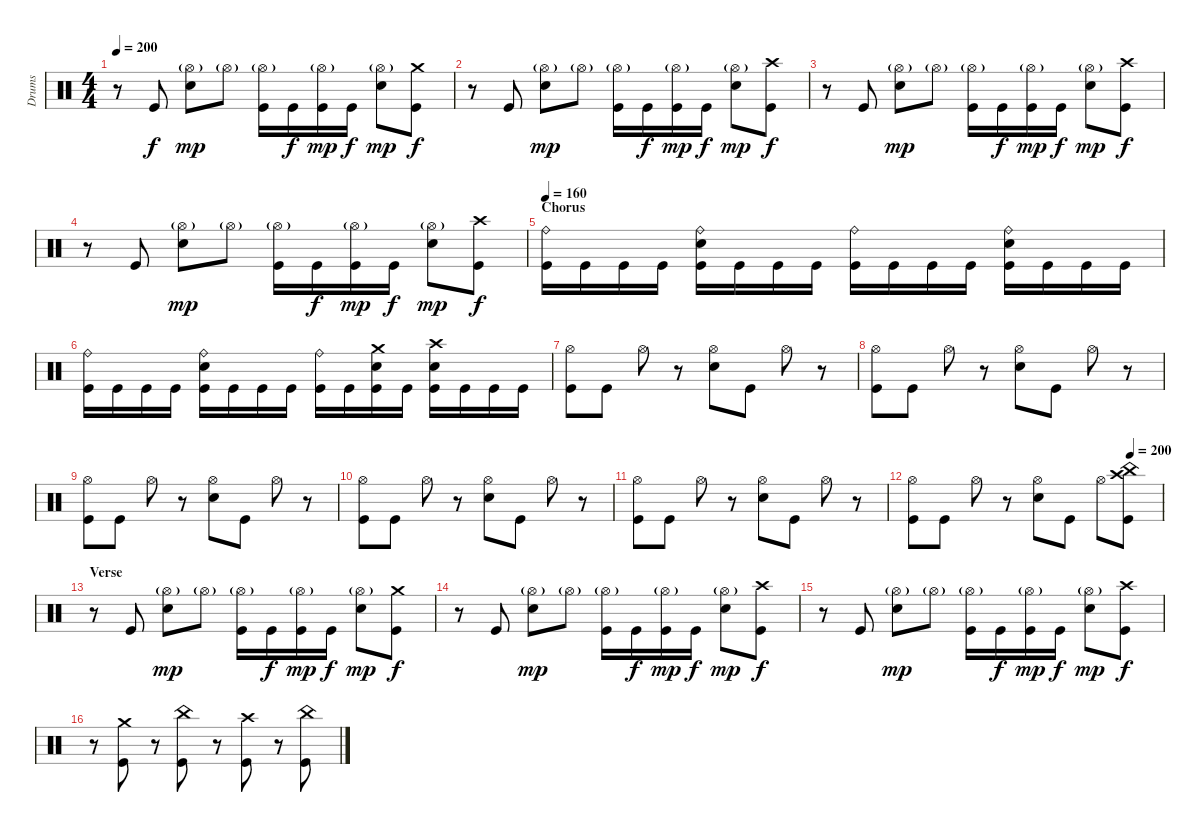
\track ("Drums" "Drums") {instrument percussion}
\staff {score}
\articulation defaults
\ts (4 4)
\tempo 200
\clef neutral
\ks c
r.8{dy f} "Kick (hit)".8 ("Hi-Hat (open)"{g} "Snare (hit) 2").8{dy mp} "Hi-Hat (open)"{g}.8 ("Hi-Hat (open)"{g} "Kick (hit)").16 "Kick (hit)".16{dy f} ("Hi-Hat (open)"{g} "Kick (hit)").16{dy mp} "Kick (hit)".16{dy f} ("Hi-Hat (open)"{g} "Snare (hit) 2").8{dy mp} ("Crash medium (hit)" "Kick (hit)").8{dy f} |
r.8 "Kick (hit)".8 ("Hi-Hat (open)"{g} "Snare (hit) 2").8{dy mp} "Hi-Hat (open)"{g}.8 ("Hi-Hat (open)"{g} "Kick (hit)").16 "Kick (hit)".16{dy f} ("Hi-Hat (open)"{g} "Kick (hit)").16{dy mp} "Kick (hit)".16{dy f} ("Hi-Hat (open)"{g} "Snare (hit) 2").8{dy mp} ("Crash high (hit)" "Kick (hit)").8{dy f} |
r.8 "Kick (hit)".8 ("Hi-Hat (open)"{g} "Snare (hit) 2").8{dy mp} "Hi-Hat (open)"{g}.8 ("Hi-Hat (open)"{g} "Kick (hit)").16 "Kick (hit)".16{dy f} ("Hi-Hat (open)"{g} "Kick (hit)").16{dy mp} "Kick (hit)".16{dy f} ("Hi-Hat (open)"{g} "Snare (hit) 2").8{dy mp} ("Crash high (hit)" "Kick (hit)").8{dy f} |
r.8 "Kick (hit)".8 ("Hi-Hat (open)"{g} "Snare (hit) 2").8{dy mp} "Hi-Hat (open)"{g}.8 ("Hi-Hat (open)"{g} "Kick (hit)").16 "Kick (hit)".16{dy f} ("Hi-Hat (open)"{g} "Kick (hit)").16{dy mp} "Kick (hit)".16{dy f} ("Hi-Hat (open)"{g} "Snare (hit) 2").8{dy mp} ("Crash high (hit)" "Kick (hit)").8{dy f} |
\section ("" "Chorus")
\tempo 160
("Ride (bell)" "Kick (hit)").16 "Kick (hit)".16 "Kick (hit)".16 "Kick (hit)".16 ("Ride (bell)" "Snare (hit) 2" "Kick (hit)").16 "Kick (hit)".16 "Kick (hit)".16 "Kick (hit)".16 ("Ride (bell)" "Kick (hit)").16 "Kick (hit)".16 "Kick (hit)".16 "Kick (hit)".16 ("Ride (bell)" "Snare (hit) 2" "Kick (hit)").16 "Kick (hit)".16 "Kick (hit)".16 "Kick (hit)".16 |
("Ride (bell)" "Kick (hit)").16 "Kick (hit)".16 "Kick (hit)".16 "Kick (hit)".16 ("Ride (bell)" "Snare (hit) 2" "Kick (hit)").16 "Kick (hit)".16 "Kick (hit)".16 "Kick (hit)".16 ("Ride (bell)" "Kick (hit)").16 "Kick (hit)".16 ("Crash medium (hit)" "Snare (hit) 2" "Kick (hit)").16 "Kick (hit)".16 ("Crash high (hit)" "Snare (hit) 2" "Kick (hit)").16 "Kick (hit)".16 "Kick (hit)".16 "Kick (hit)".16 |
("Hi-Hat (open)" "Kick (hit)").8 "Kick (hit)".8 "Hi-Hat (open)".8 r.8 ("Hi-Hat (open)" "Snare (hit) 2").8 "Kick (hit)".8 "Hi-Hat (open)".8 r.8 |
("Hi-Hat (open)" "Kick (hit)").8 "Kick (hit)".8 "Hi-Hat (open)".8 r.8 ("Hi-Hat (open)" "Snare (hit) 2").8 "Kick (hit)".8 "Hi-Hat (open)".8 r.8 |
("Hi-Hat (open)" "Kick (hit)").8 "Kick (hit)".8 "Hi-Hat (open)".8 r.8 ("Hi-Hat (open)" "Snare (hit) 2").8 "Kick (hit)".8 "Hi-Hat (open)".8 r.8 |
("Hi-Hat (open)" "Kick (hit)").8 "Kick (hit)".8 "Hi-Hat (open)".8 r.8 ("Hi-Hat (open)" "Snare (hit) 2").8 "Kick (hit)".8 "Hi-Hat (open)".8 r.8 |
("Hi-Hat (open)" "Kick (hit)").8 "Kick (hit)".8 "Hi-Hat (open)".8 r.8 ("Hi-Hat (open)" "Snare (hit) 2").8 "Kick (hit)".8 "Hi-Hat (open)".8 r.8 |
\tempo (200 0.875)
("Hi-Hat (open)" "Kick (hit)").8 "Kick (hit)".8 "Hi-Hat (open)".8 r.8 ("Hi-Hat (open)" "Snare (hit) 2").8 "Kick (hit)".8 "Hi-Hat (open)".8 ("China (hit)" "Crash high (hit)" "Kick (hit)").8 |
\section ("" "Verse")
r.8 "Kick (hit)".8 ("Hi-Hat (open)"{g} "Snare (hit) 2").8{dy mp} "Hi-Hat (open)"{g}.8 ("Hi-Hat (open)"{g} "Kick (hit)").16 "Kick (hit)".16{dy f} ("Hi-Hat (open)"{g} "Kick (hit)").16{dy mp} "Kick (hit)".16{dy f} ("Hi-Hat (open)"{g} "Snare (hit) 2").8{dy mp} ("Crash medium (hit)" "Kick (hit)").8{dy f} |
r.8 "Kick (hit)".8 ("Hi-Hat (open)"{g} "Snare (hit) 2").8{dy mp} "Hi-Hat (open)"{g}.8 ("Hi-Hat (open)"{g} "Kick (hit)").16 "Kick (hit)".16{dy f} ("Hi-Hat (open)"{g} "Kick (hit)").16{dy mp} "Kick (hit)".16{dy f} ("Hi-Hat (open)"{g} "Snare (hit) 2").8{dy mp} ("Crash high (hit)" "Kick (hit)").8{dy f} |
r.8 "Kick (hit)".8 ("Hi-Hat (open)"{g} "Snare (hit) 2").8{dy mp} "Hi-Hat (open)"{g}.8 ("Hi-Hat (open)"{g} "Kick (hit)").16 "Kick (hit)".16{dy f} ("Hi-Hat (open)"{g} "Kick (hit)").16{dy mp} "Kick (hit)".16{dy f} ("Hi-Hat (open)"{g} "Snare (hit) 2").8{dy mp} ("Crash high (hit)" "Kick (hit)").8{dy f} |
r.8 ("Crash medium (hit)" "Kick (hit)").8 r.8 ("China (hit)" "Kick (hit)").8 r.8 ("Crash high (hit)" "Kick (hit)").8 r.8 ("China (hit)" "Kick (hit)").8
